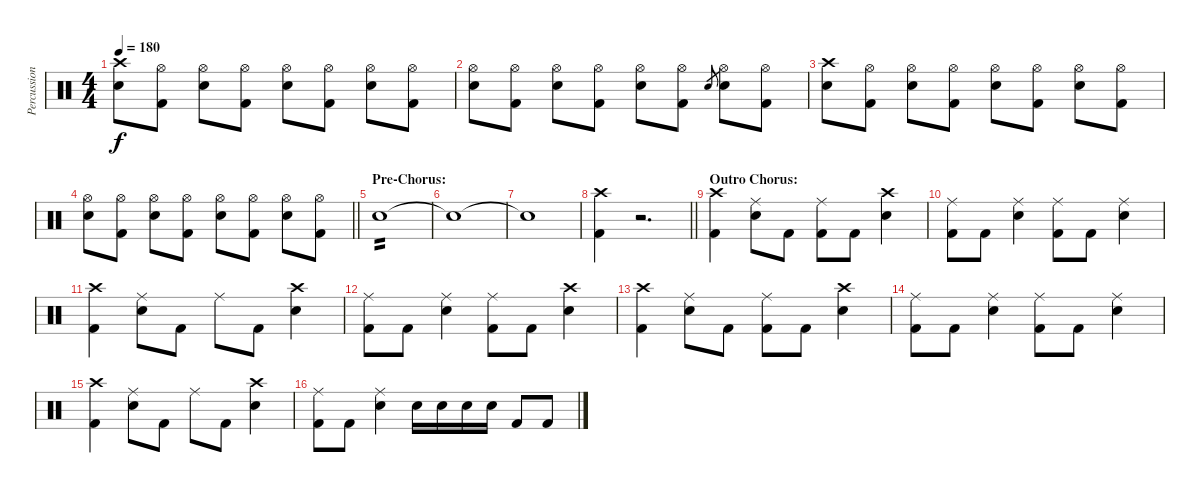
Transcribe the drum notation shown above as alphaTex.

\track ("Percussion" "Percussion") {instrument percussion}
\staff {score}
\articulation defaults
\ts (4 4)
\tempo 180
\clef neutral
\ks c
("Crash high (hit)" "Snare (hit) 2").8{dy f} ("Hi-Hat (open)" "Kick (hit) 2").8 ("Hi-Hat (open)" "Snare (hit) 2").8 ("Hi-Hat (open)" "Kick (hit) 2").8 ("Hi-Hat (open)" "Snare (hit) 2").8 ("Hi-Hat (open)" "Kick (hit) 2").8 ("Hi-Hat (open)" "Snare (hit) 2").8 ("Hi-Hat (open)" "Kick (hit) 2").8 |
("Hi-Hat (open)" "Snare (hit) 2").8 ("Hi-Hat (open)" "Kick (hit) 2").8 ("Hi-Hat (open)" "Snare (hit) 2").8 ("Hi-Hat (open)" "Kick (hit) 2").8 ("Hi-Hat (open)" "Snare (hit) 2").8 ("Hi-Hat (open)" "Kick (hit) 2").8 "Snare (hit) 2".8{gr} ("Hi-Hat (open)" "Snare (hit) 2").8 ("Hi-Hat (open)" "Kick (hit) 2").8 |
("Crash high (hit)" "Snare (hit) 2").8 ("Hi-Hat (open)" "Kick (hit) 2").8 ("Hi-Hat (open)" "Snare (hit) 2").8 ("Hi-Hat (open)" "Kick (hit) 2").8 ("Hi-Hat (open)" "Snare (hit) 2").8 ("Hi-Hat (open)" "Kick (hit) 2").8 ("Hi-Hat (open)" "Snare (hit) 2").8 ("Hi-Hat (open)" "Kick (hit) 2").8 |
\barLineRight lightlight
("Hi-Hat (open)" "Snare (hit) 2").8 ("Hi-Hat (open)" "Kick (hit) 2").8 ("Hi-Hat (open)" "Snare (hit) 2").8 ("Hi-Hat (open)" "Kick (hit) 2").8 ("Hi-Hat (open)" "Snare (hit) 2").8 ("Hi-Hat (open)" "Kick (hit) 2").8 ("Hi-Hat (open)" "Snare (hit) 2").8 ("Hi-Hat (open)" "Kick (hit) 2").8 |
\section ("" "Pre-Chorus:")
"Snare (hit) 2".1{tp 2} |
"Snare (hit)"{t}.1 |
"Snare (hit)"{t}.1 |
\barLineRight lightlight
("Crash high (hit)" "Kick (hit) 2").4 r.2{d} |
\section ("" "Outro Chorus:")
("Crash high (hit)" "Kick (hit) 2").4 ("Ride (middle)" "Snare (hit) 2").8 "Kick (hit) 2".8 ("Ride (middle)" "Kick (hit) 2").8 "Kick (hit) 2".8 ("Crash high (hit)" "Snare (hit) 2").4 |
("Ride (middle)" "Kick (hit) 2").8 "Kick (hit) 2".8 ("Ride (middle)" "Snare (hit) 2").4 ("Ride (middle)" "Kick (hit) 2").8 "Kick (hit) 2".8 ("Ride (middle)" "Snare (hit) 2").4 |
("Crash high (hit)" "Kick (hit) 2").4 ("Ride (middle)" "Snare (hit) 2").8 "Kick (hit) 2".8 "Ride (middle)".8 "Kick (hit) 2".8 ("Crash high (hit)" "Snare (hit) 2").4 |
("Ride (middle)" "Kick (hit) 2").8 "Kick (hit) 2".8 ("Ride (middle)" "Snare (hit) 2").4 ("Ride (middle)" "Kick (hit) 2").8 "Kick (hit) 2".8 ("Crash high (hit)" "Snare (hit) 2").4 |
("Crash high (hit)" "Kick (hit) 2").4 ("Ride (middle)" "Snare (hit) 2").8 "Kick (hit) 2".8 ("Ride (middle)" "Kick (hit) 2").8 "Kick (hit) 2".8 ("Crash high (hit)" "Snare (hit) 2").4 |
("Ride (middle)" "Kick (hit) 2").8 "Kick (hit) 2".8 ("Ride (middle)" "Snare (hit) 2").4 ("Ride (middle)" "Kick (hit) 2").8 "Kick (hit) 2".8 ("Ride (middle)" "Snare (hit) 2").4 |
("Crash high (hit)" "Kick (hit) 2").4 ("Ride (middle)" "Snare (hit) 2").8 "Kick (hit) 2".8 "Ride (middle)".8 "Kick (hit) 2".8 ("Crash high (hit)" "Snare (hit) 2").4 |
("Ride (middle)" "Kick (hit) 2").8 "Kick (hit) 2".8 ("Ride (middle)" "Snare (hit) 2").4 "Snare (hit) 2".16 "Snare (hit) 2".16 "Snare (hit) 2".16 "Snare (hit) 2".16 "Kick (hit) 2".8 "Kick (hit) 2".8
